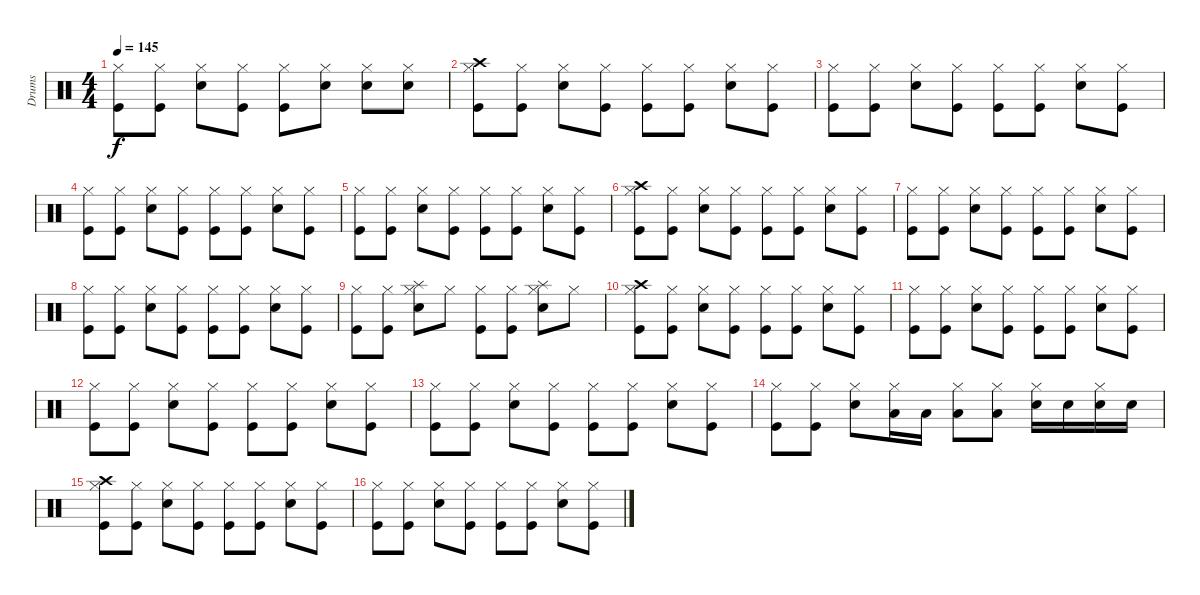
\track ("Drums" "Drums") {instrument percussion}
\staff {score}
\articulation defaults
\ts (4 4)
\tempo 145
\clef neutral
\ks c
("Kick (hit)" "Hi-Hat (closed)").8{dy f} ("Kick (hit)" "Hi-Hat (closed)").8 ("Hi-Hat (closed)" "Snare (hit) 2").8 ("Kick (hit)" "Hi-Hat (closed)").8 ("Kick (hit)" "Hi-Hat (closed)").8 ("Hi-Hat (closed)" "Snare (hit) 2").8 ("Hi-Hat (closed)" "Snare (hit) 2").8 ("Hi-Hat (closed)" "Snare (hit) 2").8 |
("Kick (hit)" "Hi-Hat (closed)" "Crash high (hit)").8 ("Kick (hit)" "Hi-Hat (closed)").8 ("Hi-Hat (closed)" "Snare (hit) 2").8 ("Kick (hit)" "Hi-Hat (closed)").8 ("Kick (hit)" "Hi-Hat (closed)").8 ("Kick (hit)" "Hi-Hat (closed)").8 ("Hi-Hat (closed)" "Snare (hit) 2").8 ("Kick (hit)" "Hi-Hat (closed)").8 |
("Kick (hit)" "Hi-Hat (closed)").8 ("Kick (hit)" "Hi-Hat (closed)").8 ("Hi-Hat (closed)" "Snare (hit) 2").8 ("Kick (hit)" "Hi-Hat (closed)").8 ("Kick (hit)" "Hi-Hat (closed)").8 ("Kick (hit)" "Hi-Hat (closed)").8 ("Hi-Hat (closed)" "Snare (hit) 2").8 ("Kick (hit)" "Hi-Hat (closed)").8 |
("Kick (hit)" "Hi-Hat (closed)").8 ("Kick (hit)" "Hi-Hat (closed)").8 ("Hi-Hat (closed)" "Snare (hit) 2").8 ("Kick (hit)" "Hi-Hat (closed)").8 ("Kick (hit)" "Hi-Hat (closed)").8 ("Kick (hit)" "Hi-Hat (closed)").8 ("Hi-Hat (closed)" "Snare (hit) 2").8 ("Kick (hit)" "Hi-Hat (closed)").8 |
("Kick (hit)" "Hi-Hat (closed)").8 ("Kick (hit)" "Hi-Hat (closed)").8 ("Hi-Hat (closed)" "Snare (hit) 2").8 ("Kick (hit)" "Hi-Hat (closed)").8 ("Kick (hit)" "Hi-Hat (closed)").8 ("Kick (hit)" "Hi-Hat (closed)").8 ("Hi-Hat (closed)" "Snare (hit) 2").8 ("Kick (hit)" "Hi-Hat (closed)").8 |
("Kick (hit)" "Hi-Hat (closed)" "Crash high (hit)").8 ("Kick (hit)" "Hi-Hat (closed)").8 ("Hi-Hat (closed)" "Snare (hit) 2").8 ("Kick (hit)" "Hi-Hat (closed)").8 ("Kick (hit)" "Hi-Hat (closed)").8 ("Kick (hit)" "Hi-Hat (closed)").8 ("Hi-Hat (closed)" "Snare (hit) 2").8 ("Kick (hit)" "Hi-Hat (closed)").8 |
("Kick (hit)" "Hi-Hat (closed)").8 ("Kick (hit)" "Hi-Hat (closed)").8 ("Hi-Hat (closed)" "Snare (hit) 2").8 ("Kick (hit)" "Hi-Hat (closed)").8 ("Kick (hit)" "Hi-Hat (closed)").8 ("Kick (hit)" "Hi-Hat (closed)").8 ("Hi-Hat (closed)" "Snare (hit) 2").8 ("Kick (hit)" "Hi-Hat (closed)").8 |
("Kick (hit)" "Hi-Hat (closed)").8 ("Kick (hit)" "Hi-Hat (closed)").8 ("Hi-Hat (closed)" "Snare (hit) 2").8 ("Kick (hit)" "Hi-Hat (closed)").8 ("Kick (hit)" "Hi-Hat (closed)").8 ("Kick (hit)" "Hi-Hat (closed)").8 ("Hi-Hat (closed)" "Snare (hit) 2").8 ("Kick (hit)" "Hi-Hat (closed)").8 |
("Kick (hit)" "Hi-Hat (closed)").8 ("Kick (hit)" "Hi-Hat (closed)").8 ("Snare (hit) 2" "Hi-Hat (closed)" "Splash (hit)").8 "Hi-Hat (closed)".8 ("Kick (hit)" "Hi-Hat (closed)").8 ("Kick (hit)" "Hi-Hat (closed)").8 ("Snare (hit) 2" "Hi-Hat (closed)" "Splash (hit)").8 "Hi-Hat (closed)".8 |
("Kick (hit)" "Hi-Hat (closed)" "Crash high (hit)").8 ("Kick (hit)" "Hi-Hat (closed)").8 ("Hi-Hat (closed)" "Snare (hit) 2").8 ("Kick (hit)" "Hi-Hat (closed)").8 ("Kick (hit)" "Hi-Hat (closed)").8 ("Kick (hit)" "Hi-Hat (closed)").8 ("Hi-Hat (closed)" "Snare (hit) 2").8 ("Kick (hit)" "Hi-Hat (closed)").8 |
("Kick (hit)" "Hi-Hat (closed)").8 ("Kick (hit)" "Hi-Hat (closed)").8 ("Hi-Hat (closed)" "Snare (hit) 2").8 ("Kick (hit)" "Hi-Hat (closed)").8 ("Kick (hit)" "Hi-Hat (closed)").8 ("Kick (hit)" "Hi-Hat (closed)").8 ("Hi-Hat (closed)" "Snare (hit) 2").8 ("Kick (hit)" "Hi-Hat (closed)").8 |
("Kick (hit)" "Hi-Hat (closed)").8 ("Kick (hit)" "Hi-Hat (closed)").8 ("Hi-Hat (closed)" "Snare (hit) 2").8 ("Kick (hit)" "Hi-Hat (closed)").8 ("Kick (hit)" "Hi-Hat (closed)").8 ("Kick (hit)" "Hi-Hat (closed)").8 ("Hi-Hat (closed)" "Snare (hit) 2").8 ("Kick (hit)" "Hi-Hat (closed)").8 |
("Kick (hit)" "Hi-Hat (closed)").8 ("Kick (hit)" "Hi-Hat (closed)").8 ("Hi-Hat (closed)" "Snare (hit) 2").8 ("Kick (hit)" "Hi-Hat (closed)").8 ("Kick (hit)" "Hi-Hat (closed)").8 ("Kick (hit)" "Hi-Hat (closed)").8 ("Hi-Hat (closed)" "Snare (hit) 2").8 ("Kick (hit)" "Hi-Hat (closed)").8 |
("Hi-Hat (closed)" "Kick (hit)").8 ("Hi-Hat (closed)" "Kick (hit)").8 ("Hi-Hat (closed)" "Snare (hit) 2").8 ("Hi-Hat (closed)" "Low Tom (hit)").16 "Low Tom (hit)".16 ("Hi-Hat (closed)" "Low Tom (hit)").8 ("Hi-Hat (closed)" "Low Tom (hit)").8 ("Hi-Hat (closed)" "Snare (hit) 2").16 "Snare (hit) 2".16 ("Hi-Hat (closed)" "Snare (hit) 2").16 "Snare (hit) 2".16 |
("Kick (hit)" "Hi-Hat (closed)" "Crash high (hit)").8 ("Kick (hit)" "Hi-Hat (closed)").8 ("Hi-Hat (closed)" "Snare (hit) 2").8 ("Kick (hit)" "Hi-Hat (closed)").8 ("Kick (hit)" "Hi-Hat (closed)").8 ("Kick (hit)" "Hi-Hat (closed)").8 ("Hi-Hat (closed)" "Snare (hit) 2").8 ("Kick (hit)" "Hi-Hat (closed)").8 |
("Kick (hit)" "Hi-Hat (closed)").8 ("Kick (hit)" "Hi-Hat (closed)").8 ("Hi-Hat (closed)" "Snare (hit) 2").8 ("Kick (hit)" "Hi-Hat (closed)").8 ("Kick (hit)" "Hi-Hat (closed)").8 ("Kick (hit)" "Hi-Hat (closed)").8 ("Hi-Hat (closed)" "Snare (hit) 2").8 ("Kick (hit)" "Hi-Hat (closed)").8
